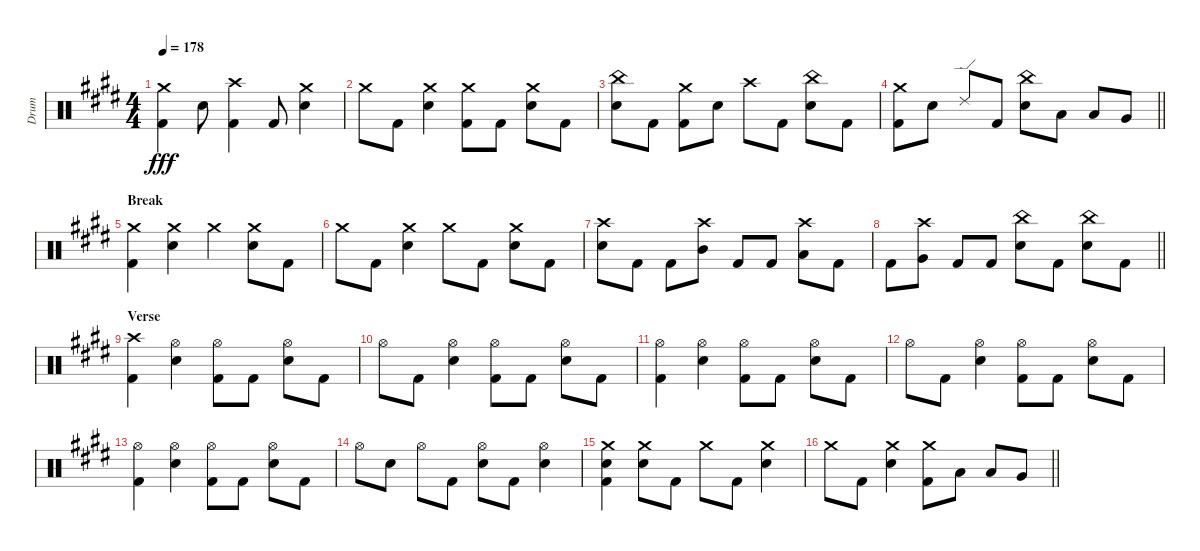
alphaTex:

\track ("Drum" "Drum") {instrument percussion}
\staff {score}
\articulation defaults
\ts (4 4)
\tempo 178
\clef neutral
\ks e
("Crash medium (hit)" "Kick (hit) 2").4{dy fff} "Electric Snare (hit)".8 ("Crash high (hit)" "Kick (hit) 2").4 "Kick (hit) 2".8 ("Crash medium (hit)" "Electric Snare (hit)").4 |
"Crash medium (hit)".8 "Kick (hit) 2".8 ("Crash medium (hit)" "Electric Snare (hit)").4 ("Crash medium (hit)" "Kick (hit) 2").8 "Kick (hit) 2".8 ("Crash medium (hit)" "Electric Snare (hit)").8 "Kick (hit) 2".8 |
("China (hit)" "Electric Snare (hit)").8 "Kick (hit) 2".8 ("Crash medium (hit)" "Kick (hit) 2").8 "Electric Snare (hit)".8 "Crash high (hit)".8 "Kick (hit) 2".8 ("China (hit)" "Electric Snare (hit)").8 "Kick (hit) 2".8 |
\barLineRight lightlight
("Crash medium (hit)" "Kick (hit) 2").8 "Electric Snare (hit)".8 "Ride (edge) 2".8 "Kick (hit) 2".8 ("China (hit)" "Electric Snare (hit)").8 "Low Tom (hit)".8 "Low Tom (hit)".8 "Very Low Tom (hit)".8 |
\section ("" "Break")
("Crash medium (hit)" "Kick (hit) 2").4 ("Crash medium (hit)" "Electric Snare (hit)").4 "Crash medium (hit)".4 ("Crash medium (hit)" "Electric Snare (hit)").8 "Kick (hit) 2".8 |
"Crash medium (hit)".8 "Kick (hit) 2".8 ("Crash medium (hit)" "Electric Snare (hit)").4 "Crash medium (hit)".8 "Kick (hit) 2".8 ("Crash medium (hit)" "Electric Snare (hit)").8 "Kick (hit) 2".8 |
("Crash high (hit)" "Electric Snare (hit)").8 "Kick (hit) 2".8 "Kick (hit) 2".8 ("Crash high (hit)" "Mid Tom (hit)").8 "Kick (hit) 2".8 "Kick (hit) 2".8 ("Crash high (hit)" "Low Tom (hit)").8 "Kick (hit) 2".8 |
\barLineRight lightlight "Kick (hit) 2".8
("Crash high (hit)" "Very Low Tom (hit)").8 "Kick (hit) 2".8 "Kick (hit) 2".8 ("China (hit)" "Electric Snare (hit)").8 "Kick (hit) 2".8 ("China (hit)" "Electric Snare (hit)").8 "Kick (hit) 2".8 |
\section ("" "Verse")
("Crash high (hit)" "Kick (hit) 2").4 ("Hi-Hat (open)" "Electric Snare (hit)").4 ("Hi-Hat (open)" "Kick (hit) 2").8 "Kick (hit) 2".8 ("Hi-Hat (open)" "Electric Snare (hit)").8 "Kick (hit) 2".8 |
"Hi-Hat (open)".8 "Kick (hit) 2".8 ("Hi-Hat (open)" "Electric Snare (hit)").4 ("Hi-Hat (open)" "Kick (hit) 2").8 "Kick (hit) 2".8 ("Hi-Hat (open)" "Electric Snare (hit)").8 "Kick (hit) 2".8 |
("Hi-Hat (open)" "Kick (hit) 2").4 ("Hi-Hat (open)" "Electric Snare (hit)").4 ("Hi-Hat (open)" "Kick (hit) 2").8 "Kick (hit) 2".8 ("Hi-Hat (open)" "Electric Snare (hit)").8 "Kick (hit) 2".8 |
"Hi-Hat (open)".8 "Kick (hit) 2".8 ("Hi-Hat (open)" "Electric Snare (hit)").4 ("Hi-Hat (open)" "Kick (hit) 2").8 "Kick (hit) 2".8 ("Hi-Hat (open)" "Electric Snare (hit)").8 "Kick (hit) 2".8 |
("Hi-Hat (open)" "Kick (hit) 2").4 ("Hi-Hat (open)" "Electric Snare (hit)").4 ("Hi-Hat (open)" "Kick (hit) 2").8 "Kick (hit) 2".8 ("Hi-Hat (open)" "Electric Snare (hit)").8 "Kick (hit) 2".8 |
"Hi-Hat (open)".8 "Electric Snare (hit)".8 "Hi-Hat (open)".8 "Kick (hit) 2".8 ("Hi-Hat (open)" "Electric Snare (hit)").8 "Kick (hit) 2".8 ("Hi-Hat (open)" "Electric Snare (hit)").4 |
("Crash medium (hit)" "Snare (hit)" "Kick (hit) 2").4 ("Crash medium (hit)" "Electric Snare (hit)").8 "Kick (hit) 2".8 "Crash medium (hit)".8 "Kick (hit) 2".8 ("Crash medium (hit)" "Electric Snare (hit)").4 |
\barLineRight lightlight "Crash medium (hit)".8 "Kick (hit) 2".8
("Crash medium (hit)" "Electric Snare (hit)").4 ("Crash medium (hit)" "Kick (hit) 2").8 "Low Tom (hit)".8 "Low Tom (hit)".8 "Very Low Tom (hit)".8
